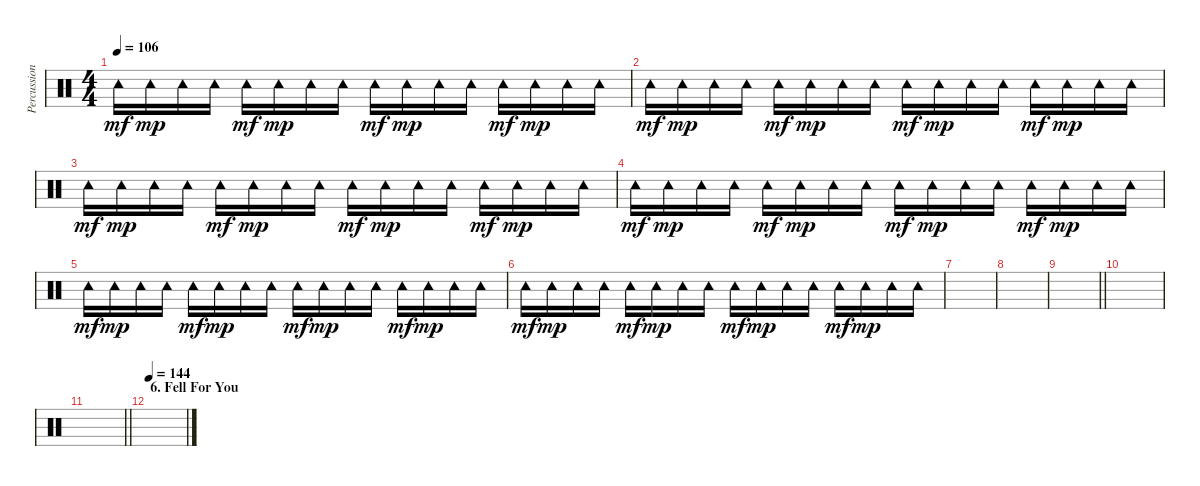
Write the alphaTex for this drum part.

\track ("Percussion" "Percussion") {instrument percussion}
\staff {score}
\articulation defaults
\ts (4 4)
\tempo 106
\clef neutral
\ks c "Tambourine (hit)".16{dy mf} "Tambourine (hit)".16{dy mp} "Tambourine (hit)".16 "Tambourine (hit)".16 "Tambourine (hit)".16{dy mf} "Tambourine (hit)".16{dy mp} "Tambourine (hit)".16 "Tambourine (hit)".16 "Tambourine (hit)".16{dy mf} "Tambourine (hit)".16{dy mp} "Tambourine (hit)".16 "Tambourine (hit)".16 "Tambourine (hit)".16{dy mf} "Tambourine (hit)".16{dy mp} "Tambourine (hit)".16 "Tambourine (hit)".16
|
"Tambourine (hit)".16{dy mf} "Tambourine (hit)".16{dy mp} "Tambourine (hit)".16 "Tambourine (hit)".16 "Tambourine (hit)".16{dy mf} "Tambourine (hit)".16{dy mp} "Tambourine (hit)".16 "Tambourine (hit)".16 "Tambourine (hit)".16{dy mf} "Tambourine (hit)".16{dy mp} "Tambourine (hit)".16 "Tambourine (hit)".16 "Tambourine (hit)".16{dy mf} "Tambourine (hit)".16{dy mp} "Tambourine (hit)".16 "Tambourine (hit)".16 |
"Tambourine (hit)".16{dy mf} "Tambourine (hit)".16{dy mp} "Tambourine (hit)".16 "Tambourine (hit)".16 "Tambourine (hit)".16{dy mf} "Tambourine (hit)".16{dy mp} "Tambourine (hit)".16 "Tambourine (hit)".16 "Tambourine (hit)".16{dy mf} "Tambourine (hit)".16{dy mp} "Tambourine (hit)".16 "Tambourine (hit)".16 "Tambourine (hit)".16{dy mf} "Tambourine (hit)".16{dy mp} "Tambourine (hit)".16 "Tambourine (hit)".16 |
"Tambourine (hit)".16{dy mf} "Tambourine (hit)".16{dy mp} "Tambourine (hit)".16 "Tambourine (hit)".16 "Tambourine (hit)".16{dy mf} "Tambourine (hit)".16{dy mp} "Tambourine (hit)".16 "Tambourine (hit)".16 "Tambourine (hit)".16{dy mf} "Tambourine (hit)".16{dy mp} "Tambourine (hit)".16 "Tambourine (hit)".16 "Tambourine (hit)".16{dy mf} "Tambourine (hit)".16{dy mp} "Tambourine (hit)".16 "Tambourine (hit)".16 |
"Tambourine (hit)".16{dy mf} "Tambourine (hit)".16{dy mp} "Tambourine (hit)".16 "Tambourine (hit)".16 "Tambourine (hit)".16{dy mf} "Tambourine (hit)".16{dy mp} "Tambourine (hit)".16 "Tambourine (hit)".16 "Tambourine (hit)".16{dy mf} "Tambourine (hit)".16{dy mp} "Tambourine (hit)".16 "Tambourine (hit)".16 "Tambourine (hit)".16{dy mf} "Tambourine (hit)".16{dy mp} "Tambourine (hit)".16 "Tambourine (hit)".16 |
"Tambourine (hit)".16{dy mf} "Tambourine (hit)".16{dy mp} "Tambourine (hit)".16 "Tambourine (hit)".16 "Tambourine (hit)".16{dy mf} "Tambourine (hit)".16{dy mp} "Tambourine (hit)".16 "Tambourine (hit)".16 "Tambourine (hit)".16{dy mf} "Tambourine (hit)".16{dy mp} "Tambourine (hit)".16 "Tambourine (hit)".16 "Tambourine (hit)".16{dy mf} "Tambourine (hit)".16{dy mp} "Tambourine (hit)".16 "Tambourine (hit)".16 |
|
|
\barLineRight lightlight
|
|
\barLineRight lightlight
|
\section ("" "6. Fell For You")
\tempo 144
